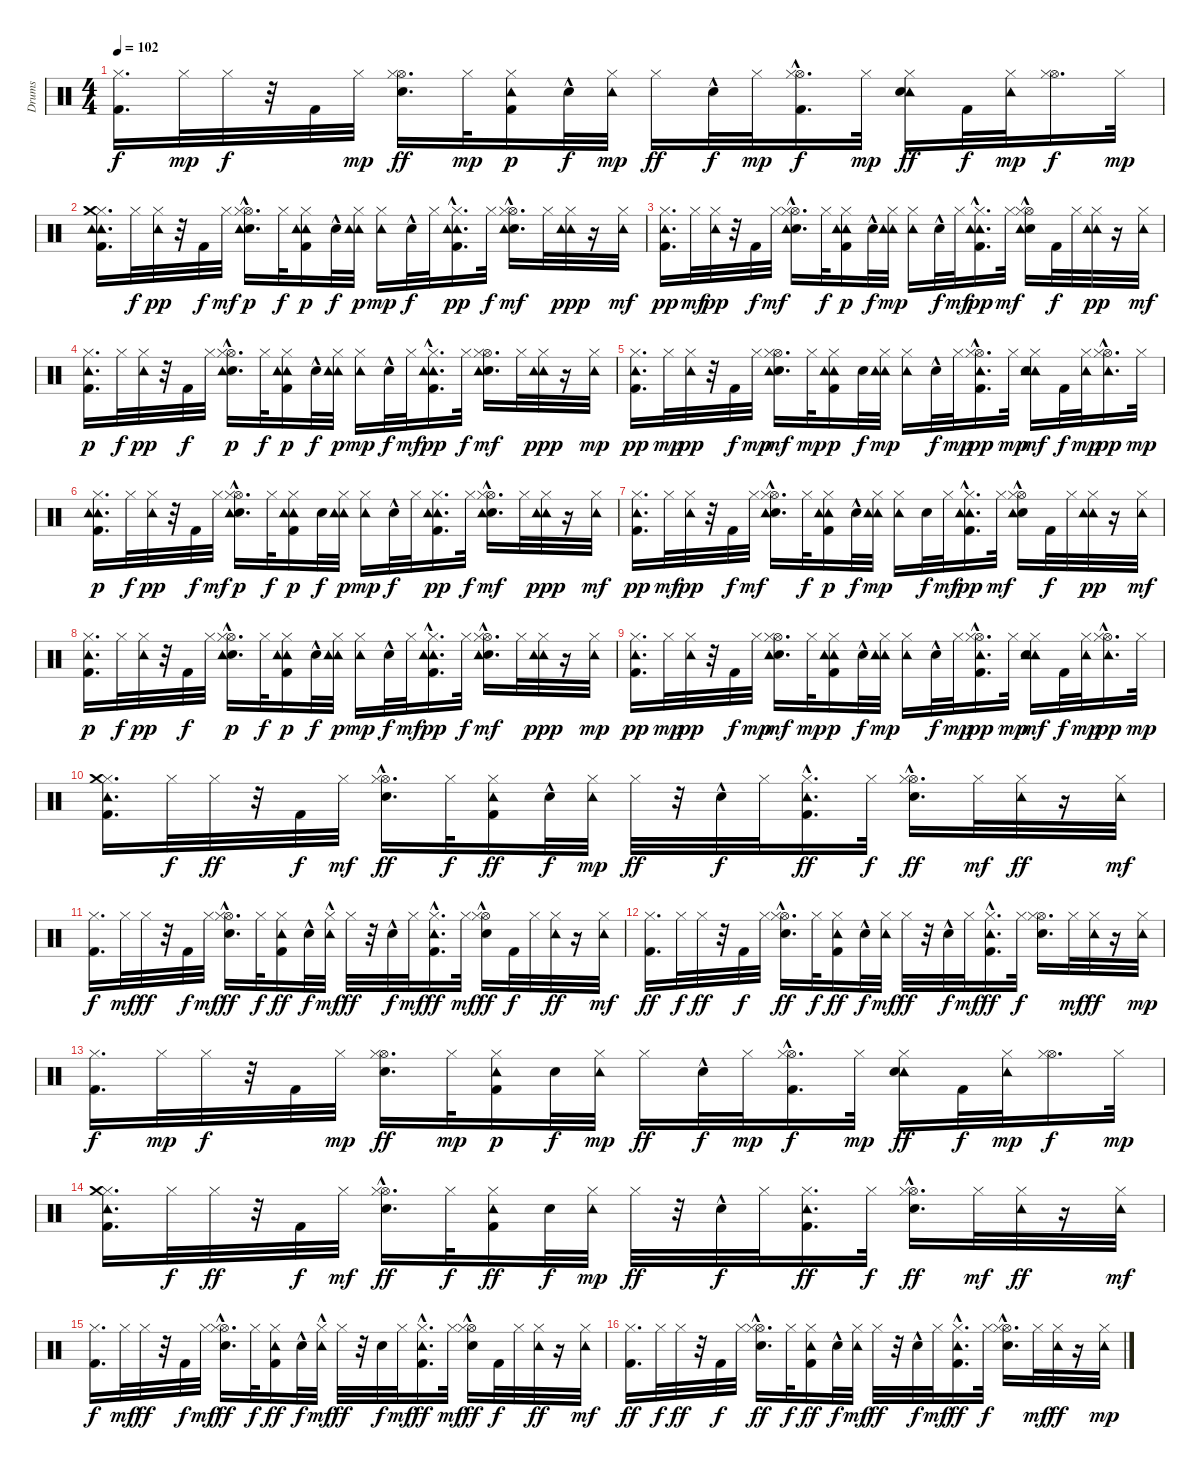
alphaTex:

\track ("Drums" "Drums") {instrument percussion}
\staff {score}
\articulation defaults
\ts (4 4)
\tempo 102
\clef neutral
\ks c
("Kick (hit) 2" "Hi-Hat (closed)").16{d dy f} "Hi-Hat (closed)".32{dy mp} "Hi-Hat (closed)".32{dy f} r.32 "Kick (hit) 2".32 "Hi-Hat (closed)".32{dy mp} ("Hi-Hat (open)" "Hi-Hat (closed)" "Electric Snare (hit)").16{d dy ff} "Hi-Hat (closed)".32{dy mp} ("Kick (hit) 2" "Tambourine (hit)" "Hi-Hat (closed)").16{dy p} "Snare (hit) 2"{hac}.32{dy f} ("Tambourine (hit)" "Hi-Hat (closed)").32{dy mp} "Hi-Hat (closed)".16{dy ff} "Snare (hit) 2"{hac}.32{dy f} "Hi-Hat (closed)".32{dy mp} ("Kick (hit) 2"{hac} "Hi-Hat (open)"{hac} "Hi-Hat (closed)").16{d dy f} "Hi-Hat (closed)".32{dy mp} ("Tambourine (hit)" "Hi-Hat (closed)" "Electric Snare (hit)").16{dy ff} "Kick (hit) 2".32{dy f} ("Tambourine (hit)" "Hi-Hat (closed)").32{dy mp} ("Hi-Hat (open)" "Hi-Hat (closed)").16{d dy f} "Hi-Hat (closed)".32{dy mp} |
("Kick (hit) 2" "Tambourine (hit)" "Hi-Hat (closed)" "Tambourine (hit)" "Crash medium (hit)").16{d} "Hi-Hat (closed)".32{dy f} ("Hi-Hat (closed)" "Tambourine (hit)").32{dy pp} r.32 "Kick (hit) 2".32{dy f} "Hi-Hat (closed)".32{dy mf} ("Hi-Hat (open)"{hac} "Hi-Hat (closed)" "Electric Snare (hit)" "Tambourine (hit)").16{d dy p} "Hi-Hat (closed)".32{dy f} ("Kick (hit) 2" "Tambourine (hit)" "Hi-Hat (closed)" "Tambourine (hit)").16{dy p} "Snare (hit) 2"{hac}.32{dy f} ("Tambourine (hit)" "Hi-Hat (closed)" "Tambourine (hit)").32{dy p} ("Hi-Hat (closed)" "Tambourine (hit)").16{dy mp} "Snare (hit) 2"{hac}.32{dy f} "Hi-Hat (closed)".32 ("Kick (hit) 2"{hac} "Tambourine (hit)" "Hi-Hat (closed)" "Tambourine (hit)").16{d dy pp} "Hi-Hat (closed)".32{dy f} ("Hi-Hat (open)"{hac} "Hi-Hat (closed)" "Electric Snare (hit)"{hac} "Tambourine (hit)").16{d dy mf} "Hi-Hat (closed)".32 ("Tambourine (hit)" "Hi-Hat (closed)" "Tambourine (hit)").32{dy ppp} r.16 ("Tambourine (hit)" "Hi-Hat (closed)").32{dy mf} |
("Kick (hit) 2" "Hi-Hat (closed)" "Tambourine (hit)").16{d dy pp} "Hi-Hat (closed)".32{dy mf} ("Hi-Hat (closed)" "Tambourine (hit)").32{dy pp} r.32 "Kick (hit) 2".32{dy f} "Hi-Hat (closed)".32{dy mf} ("Hi-Hat (open)"{hac} "Hi-Hat (closed)" "Electric Snare (hit)" "Tambourine (hit)").16{d} "Hi-Hat (closed)".32{dy f} ("Kick (hit) 2" "Tambourine (hit)" "Hi-Hat (closed)" "Tambourine (hit)").16{dy p} "Snare (hit) 2"{hac}.32{dy f} ("Tambourine (hit)" "Hi-Hat (closed)" "Tambourine (hit)").32{dy mp} ("Hi-Hat (closed)" "Tambourine (hit)").16 "Snare (hit) 2"{hac}.32{dy f} "Hi-Hat (closed)".32{dy mf} ("Kick (hit) 2"{hac} "Tambourine (hit)" "Hi-Hat (closed)" "Tambourine (hit)").16{d dy pp} "Hi-Hat (closed)".32{dy mf} ("Hi-Hat (open)"{hac} "Hi-Hat (closed)" "Electric Snare (hit)" "Tambourine (hit)").16 "Kick (hit) 2".32{dy f} "Hi-Hat (closed)".32 ("Tambourine (hit)" "Hi-Hat (closed)" "Tambourine (hit)").32{dy pp} r.16 ("Tambourine (hit)" "Hi-Hat (closed)").32{dy mf} |
("Kick (hit) 2" "Hi-Hat (closed)" "Tambourine (hit)").16{d dy p} "Hi-Hat (closed)".32{dy f} ("Hi-Hat (closed)" "Tambourine (hit)").32{dy pp} r.32 "Kick (hit) 2".32{dy f} "Hi-Hat (closed)".32 ("Hi-Hat (open)"{hac} "Hi-Hat (closed)" "Electric Snare (hit)" "Tambourine (hit)").16{d dy p} "Hi-Hat (closed)".32{dy f} ("Kick (hit) 2" "Tambourine (hit)" "Hi-Hat (closed)" "Tambourine (hit)").16{dy p} "Snare (hit) 2"{hac}.32{dy f} ("Tambourine (hit)" "Hi-Hat (closed)" "Tambourine (hit)").32{dy p} ("Hi-Hat (closed)" "Tambourine (hit)").16{dy mp} "Snare (hit) 2"{hac}.32{dy f} "Hi-Hat (closed)".32{dy mf} ("Kick (hit) 2"{hac} "Tambourine (hit)" "Hi-Hat (closed)" "Tambourine (hit)").16{d dy pp} "Hi-Hat (closed)".32{dy f} ("Hi-Hat (open)" "Hi-Hat (closed)" "Electric Snare (hit)" "Tambourine (hit)").16{d dy mf} "Hi-Hat (closed)".32 ("Tambourine (hit)" "Hi-Hat (closed)" "Tambourine (hit)").32{dy ppp} r.16 ("Tambourine (hit)" "Hi-Hat (closed)").32{dy mp} |
("Kick (hit) 2" "Hi-Hat (closed)" "Tambourine (hit)").16{d dy pp} "Hi-Hat (closed)".32{dy mp} ("Hi-Hat (closed)" "Tambourine (hit)").32{dy pp} r.32 "Kick (hit) 2".32{dy f} "Hi-Hat (closed)".32{dy mp} ("Hi-Hat (open)" "Hi-Hat (closed)" "Electric Snare (hit)" "Tambourine (hit)").16{d dy mf} "Hi-Hat (closed)".32{dy mp} ("Kick (hit) 2" "Tambourine (hit)" "Hi-Hat (closed)" "Tambourine (hit)").16{dy p} "Snare (hit) 2".32{dy f} ("Tambourine (hit)" "Hi-Hat (closed)" "Tambourine (hit)").32{dy mp} ("Hi-Hat (closed)" "Tambourine (hit)").16 "Snare (hit) 2"{hac}.32{dy f} "Hi-Hat (closed)".32{dy mp} ("Kick (hit) 2"{hac} "Hi-Hat (open)"{hac} "Hi-Hat (closed)" "Tambourine (hit)"{hac}).16{d dy pp} "Hi-Hat (closed)".32{dy mp} ("Tambourine (hit)" "Hi-Hat (closed)" "Electric Snare (hit)" "Tambourine (hit)").16{dy mf} "Kick (hit) 2".32{dy f} ("Tambourine (hit)" "Hi-Hat (closed)").32{dy mp} ("Hi-Hat (open)" "Hi-Hat (closed)" "Tambourine (hit)"{hac}).16{d dy pp} "Hi-Hat (closed)".32{dy mp} |
("Kick (hit) 2" "Tambourine (hit)" "Hi-Hat (closed)" "Tambourine (hit)").16{d dy p} "Hi-Hat (closed)".32{dy f} ("Hi-Hat (closed)" "Tambourine (hit)").32{dy pp} r.32 "Kick (hit) 2".32{dy f} "Hi-Hat (closed)".32{dy mf} ("Hi-Hat (open)"{hac} "Hi-Hat (closed)" "Electric Snare (hit)" "Tambourine (hit)").16{d dy p} "Hi-Hat (closed)".32{dy f} ("Kick (hit) 2" "Tambourine (hit)" "Hi-Hat (closed)" "Tambourine (hit)").16{dy p} "Snare (hit) 2".32{dy f} ("Tambourine (hit)" "Hi-Hat (closed)" "Tambourine (hit)").32{dy p} ("Hi-Hat (closed)" "Tambourine (hit)").16{dy mp} "Snare (hit) 2"{hac}.32{dy f} "Hi-Hat (closed)".32 ("Kick (hit) 2" "Tambourine (hit)" "Hi-Hat (closed)" "Tambourine (hit)").16{d dy pp} "Hi-Hat (closed)".32{dy f} ("Hi-Hat (open)"{hac} "Hi-Hat (closed)" "Electric Snare (hit)"{hac} "Tambourine (hit)").16{d dy mf} "Hi-Hat (closed)".32 ("Tambourine (hit)" "Hi-Hat (closed)" "Tambourine (hit)").32{dy ppp} r.16 ("Tambourine (hit)" "Hi-Hat (closed)").32{dy mf} |
("Kick (hit) 2" "Hi-Hat (closed)" "Tambourine (hit)").16{d dy pp} "Hi-Hat (closed)".32{dy mf} ("Hi-Hat (closed)" "Tambourine (hit)").32{dy pp} r.32 "Kick (hit) 2".32{dy f} "Hi-Hat (closed)".32{dy mf} ("Hi-Hat (open)"{hac} "Hi-Hat (closed)" "Electric Snare (hit)" "Tambourine (hit)").16{d} "Hi-Hat (closed)".32{dy f} ("Kick (hit) 2" "Tambourine (hit)" "Hi-Hat (closed)" "Tambourine (hit)").16{dy p} "Snare (hit) 2"{hac}.32{dy f} ("Tambourine (hit)" "Hi-Hat (closed)" "Tambourine (hit)").32{dy mp} ("Hi-Hat (closed)" "Tambourine (hit)").16 "Snare (hit) 2".32{dy f} "Hi-Hat (closed)".32{dy mf} ("Kick (hit) 2"{hac} "Tambourine (hit)" "Hi-Hat (closed)" "Tambourine (hit)").16{d dy pp} "Hi-Hat (closed)".32{dy mf} ("Hi-Hat (open)"{hac} "Hi-Hat (closed)" "Electric Snare (hit)" "Tambourine (hit)").16 "Kick (hit) 2".32{dy f} "Hi-Hat (closed)".32 ("Tambourine (hit)" "Hi-Hat (closed)" "Tambourine (hit)").32{dy pp} r.16 ("Tambourine (hit)" "Hi-Hat (closed)").32{dy mf} |
("Kick (hit) 2" "Hi-Hat (closed)" "Tambourine (hit)").16{d dy p} "Hi-Hat (closed)".32{dy f} ("Hi-Hat (closed)" "Tambourine (hit)").32{dy pp} r.32 "Kick (hit) 2".32{dy f} "Hi-Hat (closed)".32 ("Hi-Hat (open)"{hac} "Hi-Hat (closed)" "Electric Snare (hit)" "Tambourine (hit)").16{d dy p} "Hi-Hat (closed)".32{dy f} ("Kick (hit) 2" "Tambourine (hit)" "Hi-Hat (closed)" "Tambourine (hit)").16{dy p} "Snare (hit) 2"{hac}.32{dy f} ("Tambourine (hit)" "Hi-Hat (closed)" "Tambourine (hit)").32{dy p} ("Hi-Hat (closed)" "Tambourine (hit)").16{dy mp} "Snare (hit) 2"{hac}.32{dy f} "Hi-Hat (closed)".32{dy mf} ("Kick (hit) 2"{hac} "Tambourine (hit)" "Hi-Hat (closed)" "Tambourine (hit)").16{d dy pp} "Hi-Hat (closed)".32{dy f} ("Hi-Hat (open)" "Hi-Hat (closed)" "Electric Snare (hit)"{hac} "Tambourine (hit)").16{d dy mf} "Hi-Hat (closed)".32 ("Tambourine (hit)" "Hi-Hat (closed)" "Tambourine (hit)").32{dy ppp} r.16 ("Tambourine (hit)" "Hi-Hat (closed)").32{dy mp} |
("Kick (hit) 2" "Hi-Hat (closed)" "Tambourine (hit)").16{d dy pp} "Hi-Hat (closed)".32{dy mp} ("Hi-Hat (closed)" "Tambourine (hit)").32{dy pp} r.32 "Kick (hit) 2".32{dy f} "Hi-Hat (closed)".32{dy mp} ("Hi-Hat (open)" "Hi-Hat (closed)" "Electric Snare (hit)" "Tambourine (hit)").16{d dy mf} "Hi-Hat (closed)".32{dy mp} ("Kick (hit) 2" "Tambourine (hit)" "Hi-Hat (closed)" "Tambourine (hit)").16{dy p} "Snare (hit) 2"{hac}.32{dy f} ("Tambourine (hit)" "Hi-Hat (closed)" "Tambourine (hit)").32{dy mp} ("Hi-Hat (closed)" "Tambourine (hit)").16 "Snare (hit) 2"{hac}.32{dy f} "Hi-Hat (closed)".32{dy mp} ("Kick (hit) 2"{hac} "Hi-Hat (open)"{hac} "Hi-Hat (closed)" "Tambourine (hit)"{hac}).16{d dy pp} "Hi-Hat (closed)".32{dy mp} ("Tambourine (hit)" "Hi-Hat (closed)" "Electric Snare (hit)" "Tambourine (hit)").16{dy mf} "Kick (hit) 2".32{dy f} ("Tambourine (hit)" "Hi-Hat (closed)").32{dy mp} ("Hi-Hat (open)" "Hi-Hat (closed)" "Tambourine (hit)"{hac}).16{d dy pp} "Hi-Hat (closed)".32{dy mp} |
("Kick (hit) 2" "Tambourine (hit)" "Hi-Hat (closed)" "Crash medium (hit)").16{d} "Hi-Hat (closed)".32{dy f} "Hi-Hat (closed)".32{dy ff} r.32 "Kick (hit) 2".32{dy f} "Hi-Hat (closed)".32{dy mf} ("Hi-Hat (open)"{hac} "Electric Snare (hit)" "Hi-Hat (closed)").16{d dy ff} "Hi-Hat (closed)".32{dy f} ("Kick (hit) 2" "Tambourine (hit)" "Hi-Hat (closed)").16{dy ff} "Snare (hit) 2"{hac}.32{dy f} ("Tambourine (hit)" "Hi-Hat (closed)").32{dy mp} "Hi-Hat (closed)".32{dy ff} r.32 "Snare (hit) 2"{hac}.32{dy f} "Hi-Hat (closed)".32 ("Kick (hit) 2"{hac} "Tambourine (hit)" "Hi-Hat (closed)").16{d dy ff} "Hi-Hat (closed)".32{dy f} ("Hi-Hat (open)"{hac} "Electric Snare (hit)"{hac} "Hi-Hat (closed)").16{d dy ff} "Hi-Hat (closed)".32{dy mf} ("Tambourine (hit)" "Hi-Hat (closed)").32{dy ff} r.16 ("Tambourine (hit)" "Hi-Hat (closed)").32{dy mf} |
("Kick (hit) 2" "Hi-Hat (closed)").16{d dy f} "Hi-Hat (closed)".32{dy mf} "Hi-Hat (closed)".32{dy ff} r.32 "Kick (hit) 2".32{dy f} "Hi-Hat (closed)".32{dy mf} ("Hi-Hat (open)"{hac} "Electric Snare (hit)" "Hi-Hat (closed)").16{d dy ff} "Hi-Hat (closed)".32{dy f} ("Kick (hit) 2" "Tambourine (hit)" "Hi-Hat (closed)").16{dy ff} "Snare (hit) 2"{hac}.32{dy f} ("Tambourine (hit)"{hac} "Hi-Hat (closed)").32{dy mf} "Hi-Hat (closed)".32{dy ff} r.32 "Snare (hit) 2"{hac}.32{dy f} "Hi-Hat (closed)".32{dy mf} ("Kick (hit) 2"{hac} "Tambourine (hit)" "Hi-Hat (closed)").16{d dy ff} "Hi-Hat (closed)".32{dy mf} ("Hi-Hat (open)"{hac} "Electric Snare (hit)" "Hi-Hat (closed)").16{dy ff} "Kick (hit) 2".32{dy f} "Hi-Hat (closed)".32 ("Tambourine (hit)" "Hi-Hat (closed)").32{dy ff} r.16 ("Tambourine (hit)" "Hi-Hat (closed)").32{dy mf} |
("Kick (hit) 2" "Hi-Hat (closed)").16{d dy ff} "Hi-Hat (closed)".32{dy f} "Hi-Hat (closed)".32{dy ff} r.32 "Kick (hit) 2".32{dy f} "Hi-Hat (closed)".32 ("Hi-Hat (open)"{hac} "Electric Snare (hit)" "Hi-Hat (closed)").16{d dy ff} "Hi-Hat (closed)".32{dy f} ("Kick (hit) 2" "Tambourine (hit)" "Hi-Hat (closed)").16{dy ff} "Snare (hit) 2"{hac}.32{dy f} ("Tambourine (hit)" "Hi-Hat (closed)").32{dy mf} "Hi-Hat (closed)".32{dy ff} r.32 "Snare (hit) 2"{hac}.32{dy f} "Hi-Hat (closed)".32{dy mf} ("Kick (hit) 2"{hac} "Tambourine (hit)" "Hi-Hat (closed)").16{d dy ff} "Hi-Hat (closed)".32{dy f} ("Hi-Hat (open)" "Electric Snare (hit)" "Hi-Hat (closed)").16{d} "Hi-Hat (closed)".32{dy mf} ("Tambourine (hit)" "Hi-Hat (closed)").32{dy ff} r.16 ("Tambourine (hit)" "Hi-Hat (closed)").32{dy mp} |
("Kick (hit) 2" "Hi-Hat (closed)").16{d dy f} "Hi-Hat (closed)".32{dy mp} "Hi-Hat (closed)".32{dy f} r.32 "Kick (hit) 2".32 "Hi-Hat (closed)".32{dy mp} ("Hi-Hat (open)" "Electric Snare (hit)" "Hi-Hat (closed)").16{d dy ff} "Hi-Hat (closed)".32{dy mp} ("Kick (hit) 2" "Tambourine (hit)" "Hi-Hat (closed)").16{dy p} "Snare (hit) 2".32{dy f} ("Tambourine (hit)" "Hi-Hat (closed)").32{dy mp} "Hi-Hat (closed)".16{dy ff} "Snare (hit) 2"{hac}.32{dy f} "Hi-Hat (closed)".32{dy mp} ("Kick (hit) 2"{hac} "Hi-Hat (open)"{hac} "Hi-Hat (closed)").16{d dy f} "Hi-Hat (closed)".32{dy mp} ("Tambourine (hit)" "Electric Snare (hit)" "Hi-Hat (closed)").16{dy ff} "Kick (hit) 2".32{dy f} ("Tambourine (hit)" "Hi-Hat (closed)").32{dy mp} ("Hi-Hat (open)" "Hi-Hat (closed)").16{d dy f} "Hi-Hat (closed)".32{dy mp} |
("Kick (hit) 2" "Tambourine (hit)" "Hi-Hat (closed)" "Crash medium (hit)").16{d} "Hi-Hat (closed)".32{dy f} "Hi-Hat (closed)".32{dy ff} r.32 "Kick (hit) 2".32{dy f} "Hi-Hat (closed)".32{dy mf} ("Hi-Hat (open)"{hac} "Hi-Hat (closed)" "Electric Snare (hit)").16{d dy ff} "Hi-Hat (closed)".32{dy f} ("Kick (hit) 2" "Tambourine (hit)" "Hi-Hat (closed)").16{dy ff} "Snare (hit) 2".32{dy f} ("Tambourine (hit)" "Hi-Hat (closed)").32{dy mp} "Hi-Hat (closed)".32{dy ff} r.32 "Snare (hit) 2"{hac}.32{dy f} "Hi-Hat (closed)".32 ("Kick (hit) 2" "Tambourine (hit)" "Hi-Hat (closed)").16{d dy ff} "Hi-Hat (closed)".32{dy f} ("Hi-Hat (open)"{hac} "Hi-Hat (closed)" "Electric Snare (hit)"{hac}).16{d dy ff} "Hi-Hat (closed)".32{dy mf} ("Tambourine (hit)" "Hi-Hat (closed)").32{dy ff} r.16 ("Tambourine (hit)" "Hi-Hat (closed)").32{dy mf} |
("Kick (hit) 2" "Hi-Hat (closed)").16{d dy f} "Hi-Hat (closed)".32{dy mf} "Hi-Hat (closed)".32{dy ff} r.32 "Kick (hit) 2".32{dy f} "Hi-Hat (closed)".32{dy mf} ("Hi-Hat (open)"{hac} "Hi-Hat (closed)" "Electric Snare (hit)").16{d dy ff} "Hi-Hat (closed)".32{dy f} ("Kick (hit) 2" "Tambourine (hit)" "Hi-Hat (closed)").16{dy ff} "Snare (hit) 2"{hac}.32{dy f} ("Tambourine (hit)"{hac} "Hi-Hat (closed)").32{dy mf} "Hi-Hat (closed)".32{dy ff} r.32 "Snare (hit) 2".32{dy f} "Hi-Hat (closed)".32{dy mf} ("Kick (hit) 2"{hac} "Tambourine (hit)" "Hi-Hat (closed)").16{d dy ff} "Hi-Hat (closed)".32{dy mf} ("Hi-Hat (open)"{hac} "Hi-Hat (closed)" "Electric Snare (hit)").16{dy ff} "Kick (hit) 2".32{dy f} "Hi-Hat (closed)".32 ("Tambourine (hit)" "Hi-Hat (closed)").32{dy ff} r.16 ("Tambourine (hit)" "Hi-Hat (closed)").32{dy mf} |
("Kick (hit) 2" "Hi-Hat (closed)").16{d dy ff} "Hi-Hat (closed)".32{dy f} "Hi-Hat (closed)".32{dy ff} r.32 "Kick (hit) 2".32{dy f} "Hi-Hat (closed)".32 ("Hi-Hat (open)"{hac} "Hi-Hat (closed)" "Electric Snare (hit)").16{d dy ff} "Hi-Hat (closed)".32{dy f} ("Kick (hit) 2" "Tambourine (hit)" "Hi-Hat (closed)").16{dy ff} "Snare (hit) 2"{hac}.32{dy f} ("Tambourine (hit)" "Hi-Hat (closed)").32{dy mf} "Hi-Hat (closed)".32{dy ff} r.32 "Snare (hit) 2"{hac}.32{dy f} "Hi-Hat (closed)".32{dy mf} ("Kick (hit) 2"{hac} "Tambourine (hit)" "Hi-Hat (closed)").16{d dy ff} "Hi-Hat (closed)".32{dy f} ("Hi-Hat (open)" "Hi-Hat (closed)" "Electric Snare (hit)"{hac}).16{d} "Hi-Hat (closed)".32{dy mf} ("Tambourine (hit)" "Hi-Hat (closed)").32{dy ff} r.16 ("Tambourine (hit)" "Hi-Hat (closed)").32{dy mp}
